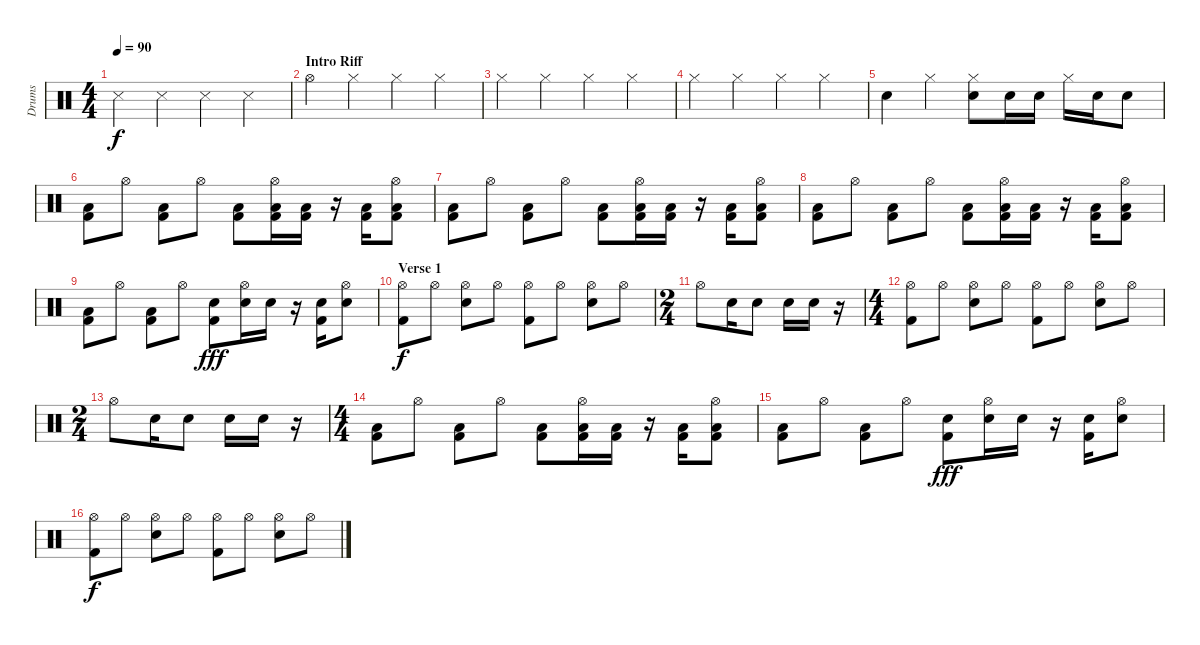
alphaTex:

\track ("Drums" "Drums") {instrument percussion}
\staff {score}
\articulation defaults
\ts (4 4)
\tempo 90
\clef neutral
\ks c "Snare (side stick) 3".4{dy f} "Snare (side stick) 3".4 "Snare (side stick) 3".4 "Snare (side stick) 3".4
|
\section ("" "Intro Riff")
"Hi-Hat (open)".4 "Hi-Hat (closed)".4 "Hi-Hat (closed)".4 "Hi-Hat (closed)".4 |
"Hi-Hat (closed)".4 "Hi-Hat (closed)".4 "Hi-Hat (closed)".4 "Hi-Hat (closed)".4 |
"Hi-Hat (closed)".4 "Hi-Hat (closed)".4 "Hi-Hat (closed)".4 "Hi-Hat (closed)".4 |
"Electric Snare (hit)".4 "Hi-Hat (closed)".4 ("Hi-Hat (closed)" "Electric Snare (hit)").8 "Electric Snare (hit)".16 "Electric Snare (hit)".16 "Hi-Hat (closed)".16 "Electric Snare (hit)".16 "Electric Snare (hit)".8 |
("Low Floor Tom (hit)" "Kick (hit) 2").8 "Hi-Hat (open)".8 ("Low Floor Tom (hit)" "Kick (hit) 2").8 "Hi-Hat (open)".8 ("Low Floor Tom (hit)" "Kick (hit) 2").8 ("Hi-Hat (open)" "Low Floor Tom (hit)" "Kick (hit) 2").16 ("Low Floor Tom (hit)" "Kick (hit) 2").16 r.16 ("Low Floor Tom (hit)" "Kick (hit) 2").16 ("Hi-Hat (open)" "Low Floor Tom (hit)" "Kick (hit) 2").8 |
("Low Floor Tom (hit)" "Kick (hit) 2").8 "Hi-Hat (open)".8 ("Low Floor Tom (hit)" "Kick (hit) 2").8 "Hi-Hat (open)".8 ("Low Floor Tom (hit)" "Kick (hit) 2").8 ("Hi-Hat (open)" "Low Floor Tom (hit)" "Kick (hit) 2").16 ("Low Floor Tom (hit)" "Kick (hit) 2").16 r.16 ("Low Floor Tom (hit)" "Kick (hit) 2").16 ("Hi-Hat (open)" "Low Floor Tom (hit)" "Kick (hit) 2").8 |
("Low Floor Tom (hit)" "Kick (hit) 2").8 "Hi-Hat (open)".8 ("Low Floor Tom (hit)" "Kick (hit) 2").8 "Hi-Hat (open)".8 ("Low Floor Tom (hit)" "Kick (hit) 2").8 ("Hi-Hat (open)" "Low Floor Tom (hit)" "Kick (hit) 2").16 ("Low Floor Tom (hit)" "Kick (hit) 2").16 r.16 ("Low Floor Tom (hit)" "Kick (hit) 2").16 ("Hi-Hat (open)" "Low Floor Tom (hit)" "Kick (hit) 2").8 |
("Low Floor Tom (hit)" "Kick (hit) 2").8 "Hi-Hat (open)".8 ("Low Floor Tom (hit)" "Kick (hit) 2").8 "Hi-Hat (open)".8 ("Electric Snare (hit)" "Kick (hit) 2").8{dy fff} ("Hi-Hat (open)" "Electric Snare (hit)").16 "Electric Snare (hit)".16 r.16 ("Electric Snare (hit)" "Kick (hit) 2").16 ("Hi-Hat (open)" "Electric Snare (hit)").8 |
\section ("" "Verse 1")
("Hi-Hat (open)" "Kick (hit) 2").8{dy f} "Hi-Hat (open)".8 ("Hi-Hat (open)" "Electric Snare (hit)").8 "Hi-Hat (open)".8 ("Hi-Hat (open)" "Kick (hit) 2").8 "Hi-Hat (open)".8 ("Hi-Hat (open)" "Electric Snare (hit)").8 "Hi-Hat (open)".8 |
\ts (2 4)
"Hi-Hat (open)".8 "Electric Snare (hit)".16 "Electric Snare (hit)".8 "Electric Snare (hit)".16 "Electric Snare (hit)".16 r.16 |
\ts (4 4)
("Hi-Hat (open)" "Kick (hit) 2").8 "Hi-Hat (open)".8 ("Hi-Hat (open)" "Electric Snare (hit)").8 "Hi-Hat (open)".8 ("Hi-Hat (open)" "Kick (hit) 2").8 "Hi-Hat (open)".8 ("Hi-Hat (open)" "Electric Snare (hit)").8 "Hi-Hat (open)".8 |
\ts (2 4)
"Hi-Hat (open)".8 "Electric Snare (hit)".16 "Electric Snare (hit)".8 "Electric Snare (hit)".16 "Electric Snare (hit)".16 r.16 |
\ts (4 4)
("Low Floor Tom (hit)" "Kick (hit) 2").8 "Hi-Hat (open)".8 ("Low Floor Tom (hit)" "Kick (hit) 2").8 "Hi-Hat (open)".8 ("Low Floor Tom (hit)" "Kick (hit) 2").8 ("Hi-Hat (open)" "Low Floor Tom (hit)" "Kick (hit) 2").16 ("Low Floor Tom (hit)" "Kick (hit) 2").16 r.16 ("Low Floor Tom (hit)" "Kick (hit) 2").16 ("Hi-Hat (open)" "Low Floor Tom (hit)" "Kick (hit) 2").8 |
("Low Floor Tom (hit)" "Kick (hit) 2").8 "Hi-Hat (open)".8 ("Low Floor Tom (hit)" "Kick (hit) 2").8 "Hi-Hat (open)".8 ("Electric Snare (hit)" "Kick (hit) 2").8{dy fff} ("Hi-Hat (open)" "Electric Snare (hit)").16 "Electric Snare (hit)".16 r.16 ("Electric Snare (hit)" "Kick (hit) 2").16 ("Hi-Hat (open)" "Electric Snare (hit)").8 |
("Hi-Hat (open)" "Kick (hit) 2").8{dy f} "Hi-Hat (open)".8 ("Hi-Hat (open)" "Electric Snare (hit)").8 "Hi-Hat (open)".8 ("Hi-Hat (open)" "Kick (hit) 2").8 "Hi-Hat (open)".8 ("Hi-Hat (open)" "Electric Snare (hit)").8 "Hi-Hat (open)".8
